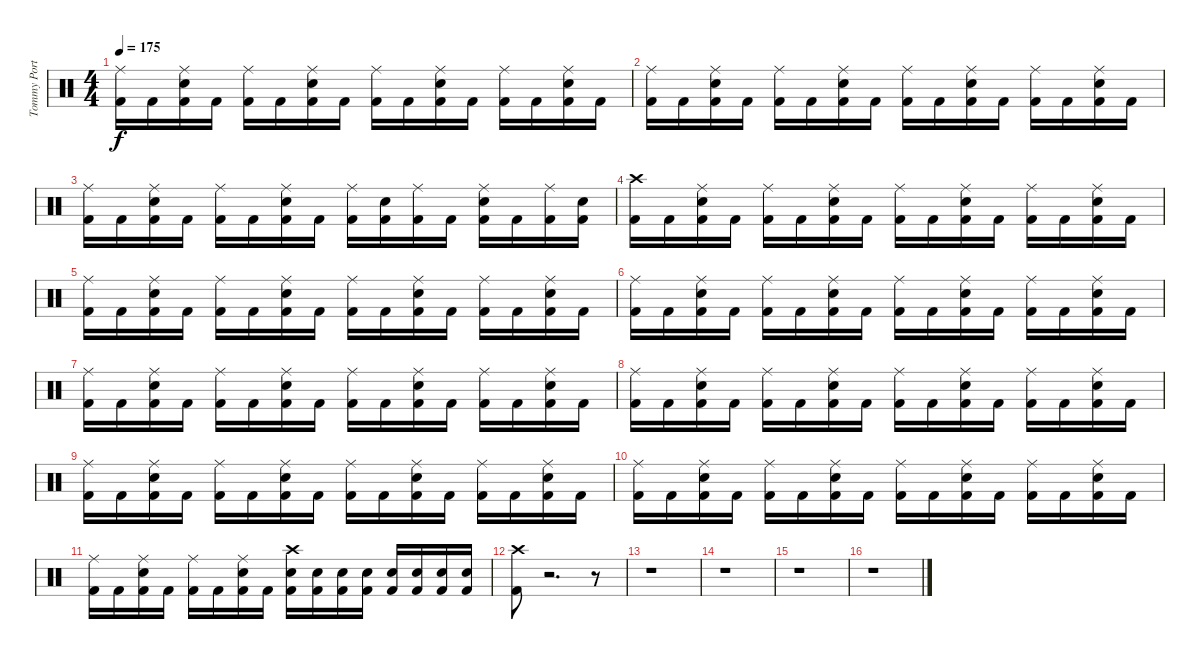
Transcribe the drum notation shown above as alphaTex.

\track ("Tommy Portimo" "Tommy Port") {instrument percussion}
\staff {score}
\articulation defaults
\ts (4 4)
\tempo 175
\clef neutral
\ks c
("Ride (middle)" "Kick (hit) 2").16{dy f} "Kick (hit) 2".16 ("Ride (middle)" "Electric Snare (hit)" "Kick (hit) 2").16 "Kick (hit) 2".16 ("Ride (middle)" "Kick (hit) 2").16 "Kick (hit) 2".16 ("Ride (middle)" "Electric Snare (hit)" "Kick (hit) 2").16 "Kick (hit) 2".16 ("Ride (middle)" "Kick (hit) 2").16 "Kick (hit) 2".16 ("Ride (middle)" "Electric Snare (hit)" "Kick (hit) 2").16 "Kick (hit) 2".16 ("Ride (middle)" "Kick (hit) 2").16 "Kick (hit) 2".16 ("Ride (middle)" "Electric Snare (hit)" "Kick (hit) 2").16 "Kick (hit) 2".16 |
("Ride (middle)" "Kick (hit) 2").16 "Kick (hit) 2".16 ("Ride (middle)" "Electric Snare (hit)" "Kick (hit) 2").16 "Kick (hit) 2".16 ("Ride (middle)" "Kick (hit) 2").16 "Kick (hit) 2".16 ("Ride (middle)" "Electric Snare (hit)" "Kick (hit) 2").16 "Kick (hit) 2".16 ("Ride (middle)" "Kick (hit) 2").16 "Kick (hit) 2".16 ("Ride (middle)" "Electric Snare (hit)" "Kick (hit) 2").16 "Kick (hit) 2".16 ("Ride (middle)" "Kick (hit) 2").16 "Kick (hit) 2".16 ("Ride (middle)" "Electric Snare (hit)" "Kick (hit) 2").16 "Kick (hit) 2".16 |
("Ride (middle)" "Kick (hit) 2").16 "Kick (hit) 2".16 ("Ride (middle)" "Electric Snare (hit)" "Kick (hit) 2").16 "Kick (hit) 2".16 ("Ride (middle)" "Kick (hit) 2").16 "Kick (hit) 2".16 ("Ride (middle)" "Electric Snare (hit)" "Kick (hit) 2").16 "Kick (hit) 2".16 ("Ride (middle)" "Kick (hit) 2").16 ("Electric Snare (hit)" "Kick (hit) 2").16 ("Ride (middle)" "Kick (hit) 2").16 "Kick (hit) 2".16 ("Ride (middle)" "Electric Snare (hit)" "Kick (hit) 2").16 "Kick (hit) 2".16 ("Ride (middle)" "Kick (hit) 2").16 ("Electric Snare (hit)" "Kick (hit) 2").16 |
("Crash high (hit)" "Kick (hit) 2").16 "Kick (hit) 2".16 ("Ride (middle)" "Electric Snare (hit)" "Kick (hit) 2").16 "Kick (hit) 2".16 ("Ride (middle)" "Kick (hit) 2").16 "Kick (hit) 2".16 ("Ride (middle)" "Electric Snare (hit)" "Kick (hit) 2").16 "Kick (hit) 2".16 ("Ride (middle)" "Kick (hit) 2").16 "Kick (hit) 2".16 ("Ride (middle)" "Electric Snare (hit)" "Kick (hit) 2").16 "Kick (hit) 2".16 ("Ride (middle)" "Kick (hit) 2").16 "Kick (hit) 2".16 ("Ride (middle)" "Electric Snare (hit)" "Kick (hit) 2").16 "Kick (hit) 2".16 |
("Ride (middle)" "Kick (hit) 2").16 "Kick (hit) 2".16 ("Ride (middle)" "Electric Snare (hit)" "Kick (hit) 2").16 "Kick (hit) 2".16 ("Ride (middle)" "Kick (hit) 2").16 "Kick (hit) 2".16 ("Ride (middle)" "Electric Snare (hit)" "Kick (hit) 2").16 "Kick (hit) 2".16 ("Ride (middle)" "Kick (hit) 2").16 "Kick (hit) 2".16 ("Ride (middle)" "Electric Snare (hit)" "Kick (hit) 2").16 "Kick (hit) 2".16 ("Ride (middle)" "Kick (hit) 2").16 "Kick (hit) 2".16 ("Ride (middle)" "Electric Snare (hit)" "Kick (hit) 2").16 "Kick (hit) 2".16 |
("Ride (middle)" "Kick (hit) 2").16 "Kick (hit) 2".16 ("Ride (middle)" "Electric Snare (hit)" "Kick (hit) 2").16 "Kick (hit) 2".16 ("Ride (middle)" "Kick (hit) 2").16 "Kick (hit) 2".16 ("Ride (middle)" "Electric Snare (hit)" "Kick (hit) 2").16 "Kick (hit) 2".16 ("Ride (middle)" "Kick (hit) 2").16 "Kick (hit) 2".16 ("Ride (middle)" "Electric Snare (hit)" "Kick (hit) 2").16 "Kick (hit) 2".16 ("Ride (middle)" "Kick (hit) 2").16 "Kick (hit) 2".16 ("Ride (middle)" "Electric Snare (hit)" "Kick (hit) 2").16 "Kick (hit) 2".16 |
("Ride (middle)" "Kick (hit) 2").16 "Kick (hit) 2".16 ("Ride (middle)" "Electric Snare (hit)" "Kick (hit) 2").16 "Kick (hit) 2".16 ("Ride (middle)" "Kick (hit) 2").16 "Kick (hit) 2".16 ("Ride (middle)" "Electric Snare (hit)" "Kick (hit) 2").16 "Kick (hit) 2".16 ("Ride (middle)" "Kick (hit) 2").16 "Kick (hit) 2".16 ("Ride (middle)" "Electric Snare (hit)" "Kick (hit) 2").16 "Kick (hit) 2".16 ("Ride (middle)" "Kick (hit) 2").16 "Kick (hit) 2".16 ("Ride (middle)" "Electric Snare (hit)" "Kick (hit) 2").16 "Kick (hit) 2".16 |
("Ride (middle)" "Kick (hit) 2").16 "Kick (hit) 2".16 ("Ride (middle)" "Electric Snare (hit)" "Kick (hit) 2").16 "Kick (hit) 2".16 ("Ride (middle)" "Kick (hit) 2").16 "Kick (hit) 2".16 ("Ride (middle)" "Electric Snare (hit)" "Kick (hit) 2").16 "Kick (hit) 2".16 ("Ride (middle)" "Kick (hit) 2").16 "Kick (hit) 2".16 ("Ride (middle)" "Electric Snare (hit)" "Kick (hit) 2").16 "Kick (hit) 2".16 ("Ride (middle)" "Kick (hit) 2").16 "Kick (hit) 2".16 ("Ride (middle)" "Electric Snare (hit)" "Kick (hit) 2").16 "Kick (hit) 2".16 |
("Ride (middle)" "Kick (hit) 2").16 "Kick (hit) 2".16 ("Ride (middle)" "Electric Snare (hit)" "Kick (hit) 2").16 "Kick (hit) 2".16 ("Ride (middle)" "Kick (hit) 2").16 "Kick (hit) 2".16 ("Ride (middle)" "Electric Snare (hit)" "Kick (hit) 2").16 "Kick (hit) 2".16 ("Ride (middle)" "Kick (hit) 2").16 "Kick (hit) 2".16 ("Ride (middle)" "Electric Snare (hit)" "Kick (hit) 2").16 "Kick (hit) 2".16 ("Ride (middle)" "Kick (hit) 2").16 "Kick (hit) 2".16 ("Ride (middle)" "Electric Snare (hit)" "Kick (hit) 2").16 "Kick (hit) 2".16 |
("Ride (middle)" "Kick (hit) 2").16 "Kick (hit) 2".16 ("Ride (middle)" "Electric Snare (hit)" "Kick (hit) 2").16 "Kick (hit) 2".16 ("Ride (middle)" "Kick (hit) 2").16 "Kick (hit) 2".16 ("Ride (middle)" "Electric Snare (hit)" "Kick (hit) 2").16 "Kick (hit) 2".16 ("Ride (middle)" "Kick (hit) 2").16 "Kick (hit) 2".16 ("Ride (middle)" "Electric Snare (hit)" "Kick (hit) 2").16 "Kick (hit) 2".16 ("Ride (middle)" "Kick (hit) 2").16 "Kick (hit) 2".16 ("Ride (middle)" "Electric Snare (hit)" "Kick (hit) 2").16 "Kick (hit) 2".16 |
("Ride (middle)" "Kick (hit) 2").16 "Kick (hit) 2".16 ("Ride (middle)" "Electric Snare (hit)" "Kick (hit) 2").16 "Kick (hit) 2".16 ("Ride (middle)" "Kick (hit) 2").16 "Kick (hit) 2".16 ("Ride (middle)" "Electric Snare (hit)" "Kick (hit) 2").16 "Kick (hit) 2".16 ("Crash high (hit)" "Electric Snare (hit)" "Kick (hit) 2").16 ("Electric Snare (hit)" "Kick (hit) 2").16 ("Electric Snare (hit)" "Kick (hit) 2").16 ("Electric Snare (hit)" "Kick (hit) 2").16 ("Electric Snare (hit)" "Kick (hit) 2").16 ("Electric Snare (hit)" "Kick (hit) 2").16 ("Electric Snare (hit)" "Kick (hit) 2").16 ("Electric Snare (hit)" "Kick (hit) 2").16 |
("Crash high (hit)" "Kick (hit) 2").8 r.2{d} r.8 |
r.1 |
r.1 |
r.1 |
r.1
